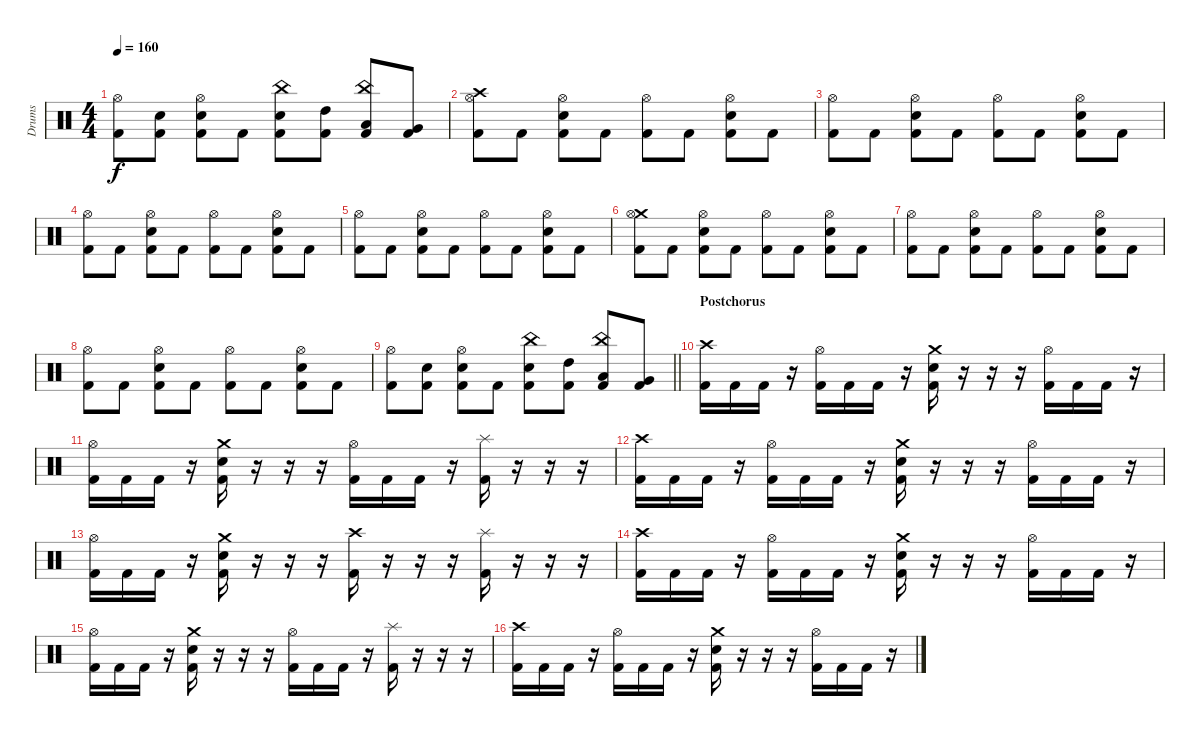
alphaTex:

\track ("Drums" "Drums") {instrument percussion}
\staff {score}
\articulation defaults
\ts (4 4)
\tempo 160
\clef neutral
\ks c
("Hi-Hat (open)" "Kick (hit) 2").8{dy f} ("Snare (hit) 2" "Kick (hit) 2").8 ("Hi-Hat (open)" "Snare (hit) 2" "Kick (hit) 2").8 "Kick (hit) 2".8 ("China (hit)" "Snare (hit) 2" "Kick (hit) 2").8 ("High Tom (hit)" "Kick (hit) 2").8 ("China (hit)" "Low Tom (hit)" "Kick (hit) 2").8 ("Very Low Tom (hit)" "Kick (hit) 2").8 |
("Crash high (hit)" "Hi-Hat (open)" "Kick (hit) 2").8 "Kick (hit) 2".8 ("Hi-Hat (open)" "Snare (hit) 2" "Kick (hit) 2").8 "Kick (hit) 2".8 ("Hi-Hat (open)" "Kick (hit) 2").8 "Kick (hit) 2".8 ("Hi-Hat (open)" "Snare (hit) 2" "Kick (hit) 2").8 "Kick (hit) 2".8 |
("Hi-Hat (open)" "Kick (hit) 2").8 "Kick (hit) 2".8 ("Hi-Hat (open)" "Snare (hit) 2" "Kick (hit) 2").8 "Kick (hit) 2".8 ("Hi-Hat (open)" "Kick (hit) 2").8 "Kick (hit) 2".8 ("Hi-Hat (open)" "Snare (hit) 2" "Kick (hit) 2").8 "Kick (hit) 2".8 |
("Hi-Hat (open)" "Kick (hit) 2").8 "Kick (hit) 2".8 ("Hi-Hat (open)" "Snare (hit) 2" "Kick (hit) 2").8 "Kick (hit) 2".8 ("Hi-Hat (open)" "Kick (hit) 2").8 "Kick (hit) 2".8 ("Hi-Hat (open)" "Snare (hit) 2" "Kick (hit) 2").8 "Kick (hit) 2".8 |
("Hi-Hat (open)" "Kick (hit) 2").8 "Kick (hit) 2".8 ("Hi-Hat (open)" "Snare (hit) 2" "Kick (hit) 2").8 "Kick (hit) 2".8 ("Hi-Hat (open)" "Kick (hit) 2").8 "Kick (hit) 2".8 ("Hi-Hat (open)" "Snare (hit) 2" "Kick (hit) 2").8 "Kick (hit) 2".8 |
("Crash medium (hit)" "Hi-Hat (open)" "Kick (hit) 2").8 "Kick (hit) 2".8 ("Hi-Hat (open)" "Snare (hit) 2" "Kick (hit) 2").8 "Kick (hit) 2".8 ("Hi-Hat (open)" "Kick (hit) 2").8 "Kick (hit) 2".8 ("Hi-Hat (open)" "Snare (hit) 2" "Kick (hit) 2").8 "Kick (hit) 2".8 |
("Hi-Hat (open)" "Kick (hit) 2").8 "Kick (hit) 2".8 ("Hi-Hat (open)" "Snare (hit) 2" "Kick (hit) 2").8 "Kick (hit) 2".8 ("Hi-Hat (open)" "Kick (hit) 2").8 "Kick (hit) 2".8 ("Hi-Hat (open)" "Snare (hit) 2" "Kick (hit) 2").8 "Kick (hit) 2".8 |
("Hi-Hat (open)" "Kick (hit) 2").8 "Kick (hit) 2".8 ("Hi-Hat (open)" "Snare (hit) 2" "Kick (hit) 2").8 "Kick (hit) 2".8 ("Hi-Hat (open)" "Kick (hit) 2").8 "Kick (hit) 2".8 ("Hi-Hat (open)" "Snare (hit) 2" "Kick (hit) 2").8 "Kick (hit) 2".8 |
\barLineRight lightlight
("Hi-Hat (open)" "Kick (hit) 2").8 ("Snare (hit) 2" "Kick (hit) 2").8 ("Hi-Hat (open)" "Snare (hit) 2" "Kick (hit) 2").8 "Kick (hit) 2".8 ("China (hit)" "Snare (hit) 2" "Kick (hit) 2").8 ("High Tom (hit)" "Kick (hit) 2").8 ("China (hit)" "Low Tom (hit)" "Kick (hit) 2").8 ("Very Low Tom (hit)" "Kick (hit) 2").8 |
\section ("" "Postchorus")
("Crash high (hit)" "Kick (hit) 2").16 "Kick (hit) 2".16 "Kick (hit) 2".16 r.16 ("Hi-Hat (open)" "Kick (hit) 2").16 "Kick (hit) 2".16 "Kick (hit) 2".16 r.16 ("Crash medium (hit)" "Snare (hit) 2" "Kick (hit) 2").16 r.16 r.16 r.16 ("Hi-Hat (open)" "Kick (hit) 2").16 "Kick (hit) 2".16 "Kick (hit) 2".16 r.16 |
("Hi-Hat (open)" "Kick (hit) 2").16 "Kick (hit) 2".16 "Kick (hit) 2".16 r.16 ("Crash medium (hit)" "Snare (hit) 2" "Kick (hit) 2").16 r.16 r.16 r.16 ("Hi-Hat (open)" "Kick (hit) 2").16 "Kick (hit) 2".16 "Kick (hit) 2".16 r.16 ("Splash (hit)" "Kick (hit) 2").16 r.16 r.16 r.16 |
("Crash high (hit)" "Kick (hit) 2").16 "Kick (hit) 2".16 "Kick (hit) 2".16 r.16 ("Hi-Hat (open)" "Kick (hit) 2").16 "Kick (hit) 2".16 "Kick (hit) 2".16 r.16 ("Crash medium (hit)" "Snare (hit) 2" "Kick (hit) 2").16 r.16 r.16 r.16 ("Hi-Hat (open)" "Kick (hit) 2").16 "Kick (hit) 2".16 "Kick (hit) 2".16 r.16 |
("Hi-Hat (open)" "Kick (hit) 2").16 "Kick (hit) 2".16 "Kick (hit) 2".16 r.16 ("Crash medium (hit)" "Snare (hit) 2" "Kick (hit) 2").16 r.16 r.16 r.16 ("Crash high (hit)" "Kick (hit) 2").16 r.16 r.16 r.16 ("Splash (hit)" "Kick (hit) 2").16 r.16 r.16 r.16 |
("Crash high (hit)" "Kick (hit) 2").16 "Kick (hit) 2".16 "Kick (hit) 2".16 r.16 ("Hi-Hat (open)" "Kick (hit) 2").16 "Kick (hit) 2".16 "Kick (hit) 2".16 r.16 ("Crash medium (hit)" "Snare (hit) 2" "Kick (hit) 2").16 r.16 r.16 r.16 ("Hi-Hat (open)" "Kick (hit) 2").16 "Kick (hit) 2".16 "Kick (hit) 2".16 r.16 |
("Hi-Hat (open)" "Kick (hit) 2").16 "Kick (hit) 2".16 "Kick (hit) 2".16 r.16 ("Crash medium (hit)" "Snare (hit) 2" "Kick (hit) 2").16 r.16 r.16 r.16 ("Hi-Hat (open)" "Kick (hit) 2").16 "Kick (hit) 2".16 "Kick (hit) 2".16 r.16 ("Splash (hit)" "Kick (hit) 2").16 r.16 r.16 r.16 |
("Crash high (hit)" "Kick (hit) 2").16 "Kick (hit) 2".16 "Kick (hit) 2".16 r.16 ("Hi-Hat (open)" "Kick (hit) 2").16 "Kick (hit) 2".16 "Kick (hit) 2".16 r.16 ("Crash medium (hit)" "Snare (hit) 2" "Kick (hit) 2").16 r.16 r.16 r.16 ("Hi-Hat (open)" "Kick (hit) 2").16 "Kick (hit) 2".16 "Kick (hit) 2".16 r.16
